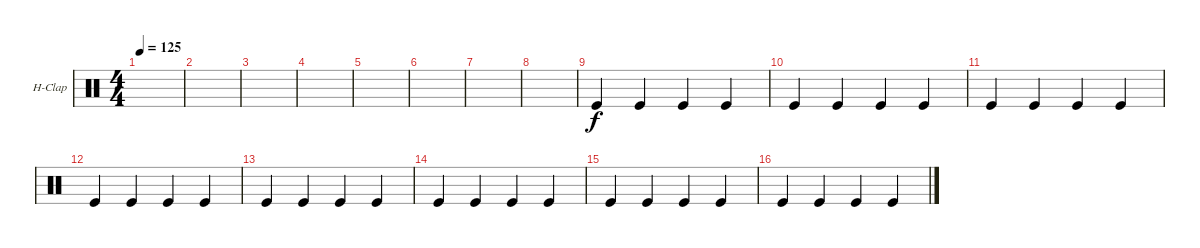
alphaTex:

\bracketExtendMode groupsimilarinstruments
\firstSystemTrackNameOrientation horizontal
\otherSystemsTrackNameOrientation horizontal
\track ("Hand Clap" "H-Clap") {instrument percussion}
\staff {score}
\articulation defaults
\ts (4 4)
\tempo 125
\clef neutral
\scale
0.333333
\ks c
|
\scale
0.333333 |
\scale
0.333333 |
\scale
0.333333 |
\scale
0.333333 |
\scale
0.333333 |
\scale
0.333333 |
|
"Kick (hit)".4 "Kick (hit)".4 "Kick (hit)".4 "Kick (hit)".4 |
"Kick (hit)".4 "Kick (hit)".4 "Kick (hit)".4 "Kick (hit)".4 |
"Kick (hit)".4 "Kick (hit)".4 "Kick (hit)".4 "Kick (hit)".4 |
"Kick (hit)".4 "Kick (hit)".4 "Kick (hit)".4 "Kick (hit)".4 |
"Kick (hit)".4 "Kick (hit)".4 "Kick (hit)".4 "Kick (hit)".4 |
"Kick (hit)".4 "Kick (hit)".4 "Kick (hit)".4 "Kick (hit)".4 |
"Kick (hit)".4 "Kick (hit)".4 "Kick (hit)".4 "Kick (hit)".4 |
"Kick (hit)".4 "Kick (hit)".4 "Kick (hit)".4 "Kick (hit)".4
